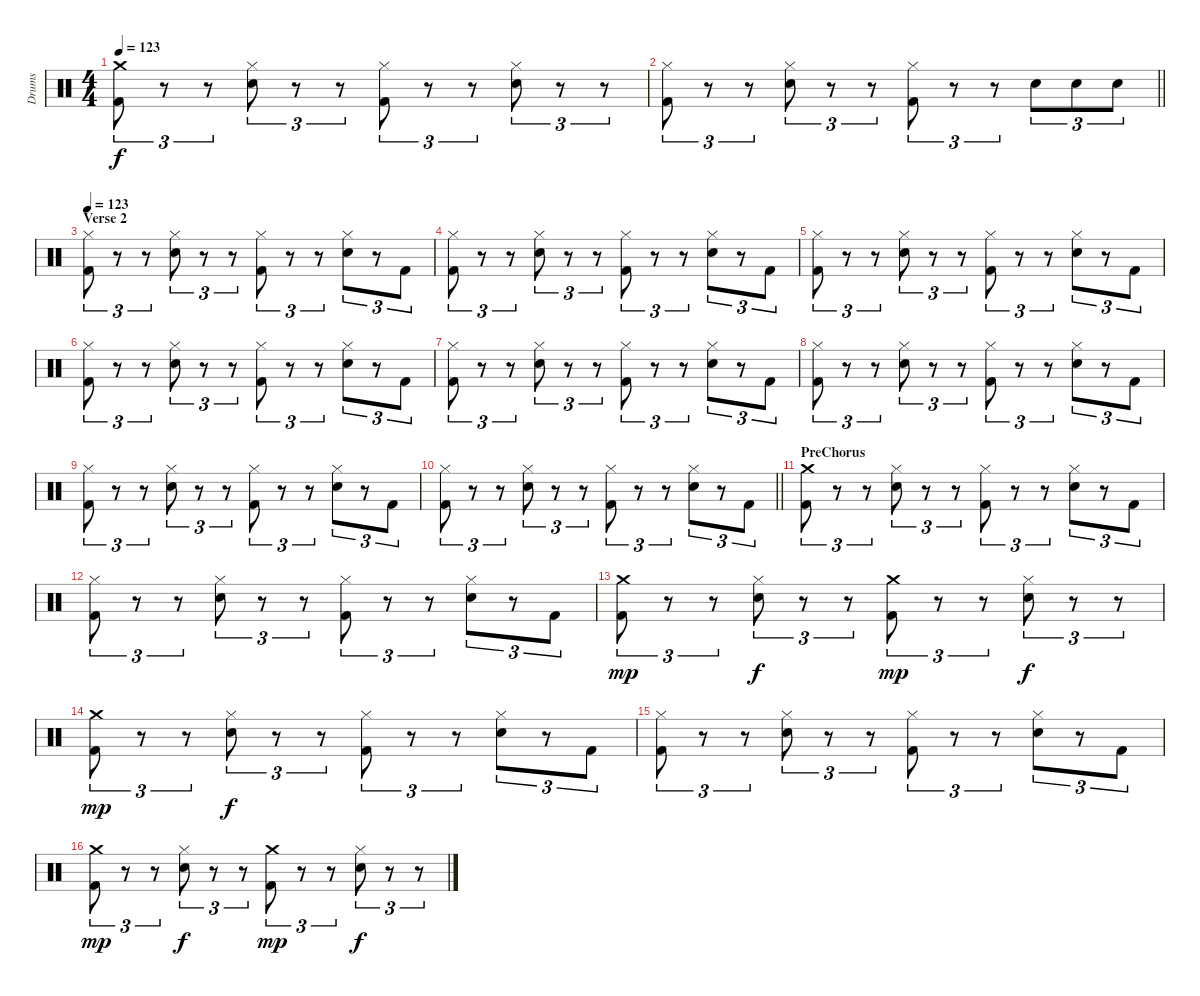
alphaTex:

\track ("Drums" "Drums") {instrument percussion}
\staff {score}
\articulation defaults
\ts (4 4)
\tempo 123
\clef neutral
\ks c
("Crash medium (hit)" "Kick (hit) 2").8{tu (3 2) dy f} r.8{tu (3 2)} r.8{tu (3 2)} ("Hi-Hat (closed)" "Snare (hit) 2").8{tu (3 2)} r.8{tu (3 2)} r.8{tu (3 2)} ("Hi-Hat (closed)" "Kick (hit) 2").8{tu (3 2)} r.8{tu (3 2)} r.8{tu (3 2)} ("Hi-Hat (closed)" "Snare (hit) 2").8{tu (3 2)} r.8{tu (3 2)} r.8{tu (3 2)} |
\barLineRight lightlight
("Hi-Hat (closed)" "Kick (hit) 2").8{tu (3 2)} r.8{tu (3 2)} r.8{tu (3 2)} ("Hi-Hat (closed)" "Snare (hit) 2").8{tu (3 2)} r.8{tu (3 2)} r.8{tu (3 2)} ("Hi-Hat (closed)" "Kick (hit) 2").8{tu (3 2)} r.8{tu (3 2)} r.8{tu (3 2)} "Snare (hit) 2".8{tu (3 2)} "Snare (hit) 2".8{tu (3 2)} "Snare (hit) 2".8{tu (3 2)} |
\section ("" "Verse 2")
\tempo 123
("Hi-Hat (closed)" "Kick (hit) 2").8{tu (3 2)} r.8{tu (3 2)} r.8{tu (3 2)} ("Hi-Hat (closed)" "Snare (hit) 2").8{tu (3 2)} r.8{tu (3 2)} r.8{tu (3 2)} ("Hi-Hat (closed)" "Kick (hit) 2").8{tu (3 2)} r.8{tu (3 2)} r.8{tu (3 2)} ("Hi-Hat (closed)" "Snare (hit) 2").8{tu (3 2)} r.8{tu (3 2)} "Kick (hit) 2".8{tu (3 2)} |
("Hi-Hat (closed)" "Kick (hit) 2").8{tu (3 2)} r.8{tu (3 2)} r.8{tu (3 2)} ("Hi-Hat (closed)" "Snare (hit) 2").8{tu (3 2)} r.8{tu (3 2)} r.8{tu (3 2)} ("Hi-Hat (closed)" "Kick (hit) 2").8{tu (3 2)} r.8{tu (3 2)} r.8{tu (3 2)} ("Hi-Hat (closed)" "Snare (hit) 2").8{tu (3 2)} r.8{tu (3 2)} "Kick (hit) 2".8{tu (3 2)} |
("Hi-Hat (closed)" "Kick (hit) 2").8{tu (3 2)} r.8{tu (3 2)} r.8{tu (3 2)} ("Hi-Hat (closed)" "Snare (hit) 2").8{tu (3 2)} r.8{tu (3 2)} r.8{tu (3 2)} ("Hi-Hat (closed)" "Kick (hit) 2").8{tu (3 2)} r.8{tu (3 2)} r.8{tu (3 2)} ("Hi-Hat (closed)" "Snare (hit) 2").8{tu (3 2)} r.8{tu (3 2)} "Kick (hit) 2".8{tu (3 2)} |
("Hi-Hat (closed)" "Kick (hit) 2").8{tu (3 2)} r.8{tu (3 2)} r.8{tu (3 2)} ("Hi-Hat (closed)" "Snare (hit) 2").8{tu (3 2)} r.8{tu (3 2)} r.8{tu (3 2)} ("Hi-Hat (closed)" "Kick (hit) 2").8{tu (3 2)} r.8{tu (3 2)} r.8{tu (3 2)} ("Hi-Hat (closed)" "Snare (hit) 2").8{tu (3 2)} r.8{tu (3 2)} "Kick (hit) 2".8{tu (3 2)} |
("Hi-Hat (closed)" "Kick (hit) 2").8{tu (3 2)} r.8{tu (3 2)} r.8{tu (3 2)} ("Hi-Hat (closed)" "Snare (hit) 2").8{tu (3 2)} r.8{tu (3 2)} r.8{tu (3 2)} ("Hi-Hat (closed)" "Kick (hit) 2").8{tu (3 2)} r.8{tu (3 2)} r.8{tu (3 2)} ("Hi-Hat (closed)" "Snare (hit) 2").8{tu (3 2)} r.8{tu (3 2)} "Kick (hit) 2".8{tu (3 2)} |
("Hi-Hat (closed)" "Kick (hit) 2").8{tu (3 2)} r.8{tu (3 2)} r.8{tu (3 2)} ("Hi-Hat (closed)" "Snare (hit) 2").8{tu (3 2)} r.8{tu (3 2)} r.8{tu (3 2)} ("Hi-Hat (closed)" "Kick (hit) 2").8{tu (3 2)} r.8{tu (3 2)} r.8{tu (3 2)} ("Hi-Hat (closed)" "Snare (hit) 2").8{tu (3 2)} r.8{tu (3 2)} "Kick (hit) 2".8{tu (3 2)} |
("Hi-Hat (closed)" "Kick (hit) 2").8{tu (3 2)} r.8{tu (3 2)} r.8{tu (3 2)} ("Hi-Hat (closed)" "Snare (hit) 2").8{tu (3 2)} r.8{tu (3 2)} r.8{tu (3 2)} ("Hi-Hat (closed)" "Kick (hit) 2").8{tu (3 2)} r.8{tu (3 2)} r.8{tu (3 2)} ("Hi-Hat (closed)" "Snare (hit) 2").8{tu (3 2)} r.8{tu (3 2)} "Kick (hit) 2".8{tu (3 2)} |
\barLineRight lightlight
("Hi-Hat (closed)" "Kick (hit) 2").8{tu (3 2)} r.8{tu (3 2)} r.8{tu (3 2)} ("Hi-Hat (closed)" "Snare (hit) 2").8{tu (3 2)} r.8{tu (3 2)} r.8{tu (3 2)} ("Hi-Hat (closed)" "Kick (hit) 2").8{tu (3 2)} r.8{tu (3 2)} r.8{tu (3 2)} ("Hi-Hat (closed)" "Snare (hit) 2").8{tu (3 2)} r.8{tu (3 2)} "Kick (hit) 2".8{tu (3 2)} |
\section ("" "PreChorus")
("Crash medium (hit)" "Kick (hit) 2").8{tu (3 2)} r.8{tu (3 2)} r.8{tu (3 2)} ("Hi-Hat (closed)" "Snare (hit) 2").8{tu (3 2)} r.8{tu (3 2)} r.8{tu (3 2)} ("Hi-Hat (closed)" "Kick (hit) 2").8{tu (3 2)} r.8{tu (3 2)} r.8{tu (3 2)} ("Hi-Hat (closed)" "Snare (hit) 2").8{tu (3 2)} r.8{tu (3 2)} "Kick (hit) 2".8{tu (3 2)} |
("Hi-Hat (closed)" "Kick (hit) 2").8{tu (3 2)} r.8{tu (3 2)} r.8{tu (3 2)} ("Hi-Hat (closed)" "Snare (hit) 2").8{tu (3 2)} r.8{tu (3 2)} r.8{tu (3 2)} ("Hi-Hat (closed)" "Kick (hit) 2").8{tu (3 2)} r.8{tu (3 2)} r.8{tu (3 2)} ("Hi-Hat (closed)" "Snare (hit) 2").8{tu (3 2)} r.8{tu (3 2)} "Kick (hit) 2".8{tu (3 2)} |
("Crash medium (hit)" "Kick (hit) 2").8{tu (3 2) dy mp} r.8{tu (3 2)} r.8{tu (3 2)} ("Hi-Hat (closed)" "Snare (hit) 2").8{tu (3 2) dy f} r.8{tu (3 2)} r.8{tu (3 2)} ("Crash medium (hit)" "Kick (hit) 2").8{tu (3 2) dy mp} r.8{tu (3 2)} r.8{tu (3 2)} ("Hi-Hat (closed)" "Snare (hit) 2").8{tu (3 2) dy f} r.8{tu (3 2)} r.8{tu (3 2)} |
("Crash medium (hit)" "Kick (hit) 2").8{tu (3 2) dy mp} r.8{tu (3 2)} r.8{tu (3 2)} ("Hi-Hat (closed)" "Snare (hit) 2").8{tu (3 2) dy f} r.8{tu (3 2)} r.8{tu (3 2)} ("Hi-Hat (closed)" "Kick (hit) 2").8{tu (3 2)} r.8{tu (3 2)} r.8{tu (3 2)} ("Hi-Hat (closed)" "Snare (hit) 2").8{tu (3 2)} r.8{tu (3 2)} "Kick (hit) 2".8{tu (3 2)} |
("Hi-Hat (closed)" "Kick (hit) 2").8{tu (3 2)} r.8{tu (3 2)} r.8{tu (3 2)} ("Hi-Hat (closed)" "Snare (hit) 2").8{tu (3 2)} r.8{tu (3 2)} r.8{tu (3 2)} ("Hi-Hat (closed)" "Kick (hit) 2").8{tu (3 2)} r.8{tu (3 2)} r.8{tu (3 2)} ("Hi-Hat (closed)" "Snare (hit) 2").8{tu (3 2)} r.8{tu (3 2)} "Kick (hit) 2".8{tu (3 2)} |
("Crash medium (hit)" "Kick (hit) 2").8{tu (3 2) dy mp} r.8{tu (3 2)} r.8{tu (3 2)} ("Hi-Hat (closed)" "Snare (hit) 2").8{tu (3 2) dy f} r.8{tu (3 2)} r.8{tu (3 2)} ("Crash medium (hit)" "Kick (hit) 2").8{tu (3 2) dy mp} r.8{tu (3 2)} r.8{tu (3 2)} ("Hi-Hat (closed)" "Snare (hit) 2").8{tu (3 2) dy f} r.8{tu (3 2)} r.8{tu (3 2)}
